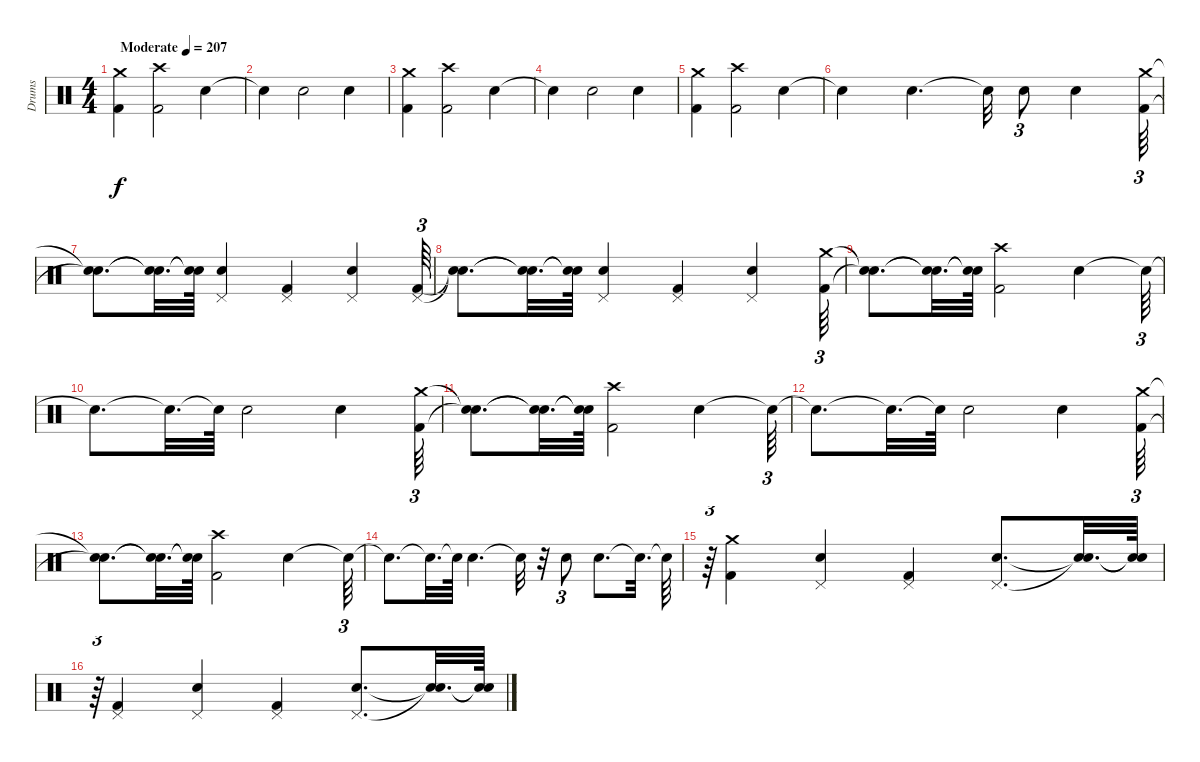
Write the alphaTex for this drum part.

\track ("Drums" "Drums") {instrument percussion}
\staff {score}
\articulation defaults
\ts (4 4)
\tempo (207 "Moderate")
\clef neutral
\ks c
("Crash medium (hit)" "Kick (hit) 2").4{dy f} ("Crash high (hit)" "Kick (hit) 2").2 "Snare (hit) 2".4 |
"Snare (hit)"{t}.4 "Snare (hit) 2".2 "Snare (hit) 2".4 |
("Crash medium (hit)" "Kick (hit) 2").4 ("Kick (hit) 2" "Crash high (hit)").2 "Snare (hit) 2".4 |
"Snare (hit)"{t}.4 "Snare (hit) 2".2 "Snare (hit) 2".4 |
("Crash medium (hit)" "Kick (hit) 2").4 ("Kick (hit) 2" "Crash high (hit)").2 "Snare (hit) 2".4 |
"Snare (hit)"{t}.4 "Snare (hit) 2".4{d} "Snare (hit)"{t}.32 "Snare (hit) 2".8{tu (3 2)} "Snare (hit) 2".4 ("Kick (hit) 2" "Crash medium (hit)").64{tu (3 2)} |
("Snare (hit)"{t} "Snare (hit)"{t}).8{d} ("Snare (hit)"{t} "Snare (hit)"{t}).32{d} ("Snare (hit)"{t} "Snare (hit)"{t}).64 ("Snare (hit) 2" "Pedal Hi-Hat (hit)").4 ("Pedal Hi-Hat (hit)" "Kick (hit) 2").4 ("Pedal Hi-Hat (hit)" "Snare (hit) 2").4 ("Pedal Hi-Hat (hit)" "Kick (hit) 2").64{tu (3 2)} |
("Snare (hit)"{t} "Snare (hit)"{t}).8{d} ("Snare (hit)"{t} "Snare (hit)"{t}).32{d} ("Snare (hit)"{t} "Snare (hit)"{t}).64 ("Pedal Hi-Hat (hit)" "Snare (hit) 2").4 ("Pedal Hi-Hat (hit)" "Kick (hit) 2").4 ("Pedal Hi-Hat (hit)" "Snare (hit) 2").4 ("Crash medium (hit)" "Kick (hit) 2").64{tu (3 2)} |
("Snare (hit)"{t} "Snare (hit)"{t}).8{d} ("Snare (hit)"{t} "Snare (hit)"{t}).32{d} ("Snare (hit)"{t} "Snare (hit)"{t}).64 ("Crash high (hit)" "Kick (hit) 2").2 "Snare (hit) 2".4 "Snare (hit)"{t}.64{tu (3 2)} |
"Snare (hit)"{t}.8{d} "Snare (hit)"{t}.32{d} "Snare (hit)"{t}.64 "Snare (hit) 2".2 "Snare (hit) 2".4 ("Crash medium (hit)" "Kick (hit) 2").64{tu (3 2)} |
("Snare (hit)"{t} "Snare (hit)"{t}).8{d} ("Snare (hit)"{t} "Snare (hit)"{t}).32{d} ("Snare (hit)"{t} "Snare (hit)"{t}).64 ("Crash high (hit)" "Kick (hit) 2").2 "Snare (hit) 2".4 "Snare (hit)"{t}.64{tu (3 2)} |
"Snare (hit)"{t}.8{d} "Snare (hit)"{t}.32{d} "Snare (hit)"{t}.64 "Snare (hit) 2".2 "Snare (hit) 2".4 ("Crash medium (hit)" "Kick (hit) 2").64{tu (3 2)} |
("Snare (hit)"{t} "Snare (hit)"{t}).8{d} ("Snare (hit)"{t} "Snare (hit)"{t}).32{d} ("Snare (hit)"{t} "Snare (hit)"{t}).64 ("Crash high (hit)" "Kick (hit) 2").2 "Snare (hit) 2".4 "Snare (hit)"{t}.64{tu (3 2)} |
"Snare (hit)"{t}.8{d} "Snare (hit)"{t}.32{d} "Snare (hit)"{t}.64 "Snare (hit) 2".4{d} "Snare (hit)"{t}.32 r.32 "Snare (hit) 2".8{tu (3 2)} "Snare (hit) 2".8{d} "Snare (hit)"{t}.32{d} "Snare (hit)"{t}.64 |
r.64{tu (3 2)} ("Crash medium (hit)" "Kick (hit) 2").4 ("Pedal Hi-Hat (hit)" "Snare (hit) 2").4 ("Pedal Hi-Hat (hit)" "Kick (hit) 2").4 ("Pedal Hi-Hat (hit)" "Snare (hit) 2").8{d} ("Snare (hit)"{t} "Snare (hit)"{t}).32{d} ("Snare (hit)"{t} "Snare (hit)"{t}).64 |
r.64{tu (3 2)} ("Pedal Hi-Hat (hit)" "Kick (hit) 2").4 ("Pedal Hi-Hat (hit)" "Snare (hit) 2").4 ("Pedal Hi-Hat (hit)" "Kick (hit) 2").4 ("Pedal Hi-Hat (hit)" "Snare (hit) 2").8{d} ("Snare (hit)"{t} "Snare (hit)"{t}).32{d} ("Snare (hit)"{t} "Snare (hit)"{t}).64
